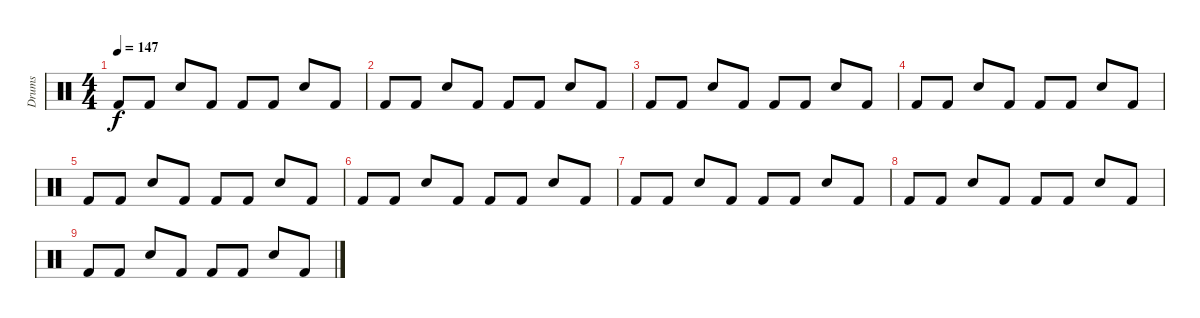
\track ("Drums" "Drums") {instrument percussion}
\staff {score}
\articulation defaults
\ts (4 4)
\tempo 147
\clef neutral
\ks c "Kick (hit) 2".8{dy f} "Kick (hit) 2".8 "Snare (hit) 2".8 "Kick (hit) 2".8 "Kick (hit) 2".8 "Kick (hit) 2".8 "Snare (hit) 2".8 "Kick (hit) 2".8
|
"Kick (hit) 2".8{volume 9} "Kick (hit) 2".8 "Snare (hit) 2".8 "Kick (hit) 2".8 "Kick (hit) 2".8 "Kick (hit) 2".8 "Snare (hit) 2".8 "Kick (hit) 2".8 |
"Kick (hit) 2".8 "Kick (hit) 2".8 "Snare (hit) 2".8 "Kick (hit) 2".8 "Kick (hit) 2".8 "Kick (hit) 2".8 "Snare (hit) 2".8 "Kick (hit) 2".8 |
"Kick (hit) 2".8 "Kick (hit) 2".8 "Snare (hit) 2".8 "Kick (hit) 2".8 "Kick (hit) 2".8 "Kick (hit) 2".8 "Snare (hit) 2".8 "Kick (hit) 2".8{volume 4} |
"Kick (hit) 2".8 "Kick (hit) 2".8 "Snare (hit) 2".8 "Kick (hit) 2".8 "Kick (hit) 2".8 "Kick (hit) 2".8 "Snare (hit) 2".8 "Kick (hit) 2".8 |
"Kick (hit) 2".8 "Kick (hit) 2".8 "Snare (hit) 2".8 "Kick (hit) 2".8 "Kick (hit) 2".8 "Kick (hit) 2".8 "Snare (hit) 2".8 "Kick (hit) 2".8 |
"Kick (hit) 2".8 "Kick (hit) 2".8 "Snare (hit) 2".8 "Kick (hit) 2".8 "Kick (hit) 2".8 "Kick (hit) 2".8 "Snare (hit) 2".8 "Kick (hit) 2".8 |
"Kick (hit) 2".8{volume 0} "Kick (hit) 2".8 "Snare (hit) 2".8 "Kick (hit) 2".8 "Kick (hit) 2".8 "Kick (hit) 2".8 "Snare (hit) 2".8 "Kick (hit) 2".8 |
"Kick (hit) 2".8 "Kick (hit) 2".8 "Snare (hit) 2".8 "Kick (hit) 2".8 "Kick (hit) 2".8 "Kick (hit) 2".8 "Snare (hit) 2".8 "Kick (hit) 2".8
